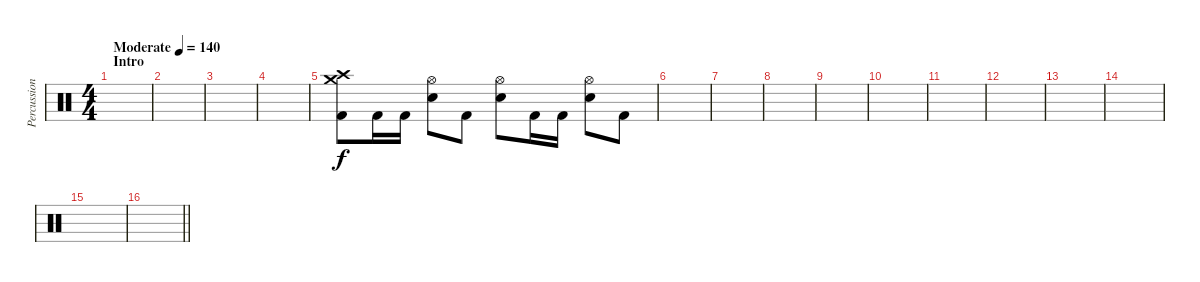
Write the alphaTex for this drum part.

\track ("Percussion" "Percussion") {mute instrument percussion}
\staff {score}
\articulation defaults
\ts (4 4)
\section ("" "Intro")
\tempo (140 "Moderate")
\clef neutral
\ks c
|
|
|
|
("Crash medium (hit)" "Crash high (hit)" "Kick (hit) 2").8 "Kick (hit) 2".16 "Kick (hit) 2".16 ("Hi-Hat (open)" "Snare (hit) 2").8 "Kick (hit) 2".8 ("Hi-Hat (open)" "Snare (hit) 2").8 "Kick (hit) 2".16 "Kick (hit) 2".16 ("Hi-Hat (open)" "Snare (hit) 2").8 "Kick (hit) 2".8 |
|
|
|
|
|
|
|
|
|
|
\barLineRight lightlight
